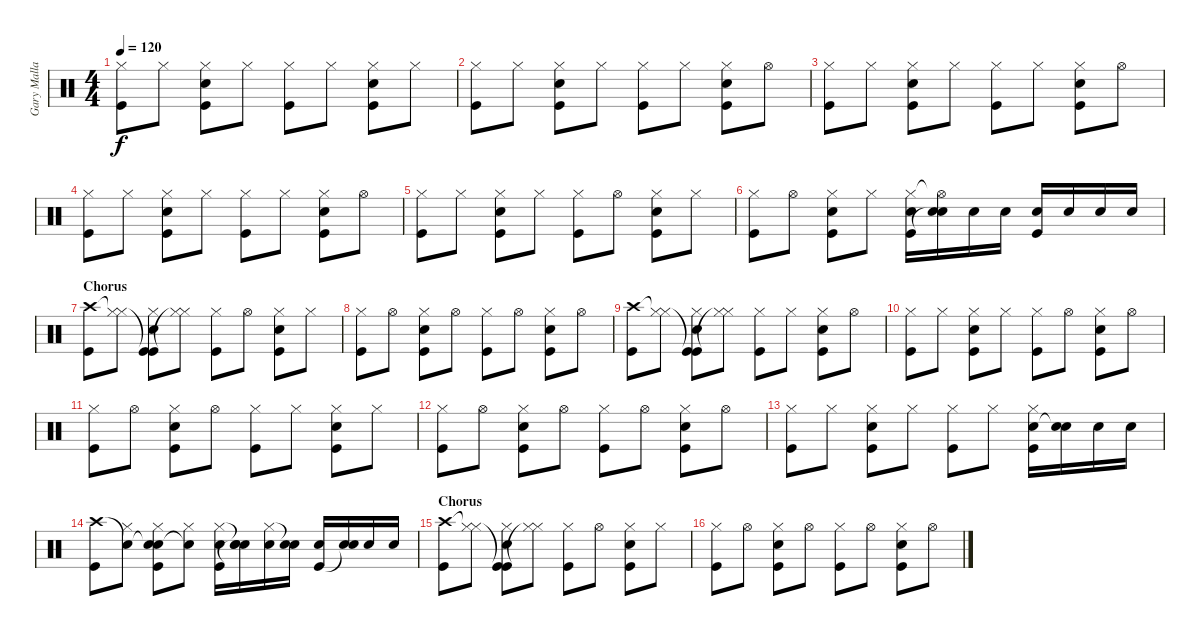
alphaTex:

\track ("Gary Mallaber" "Gary Malla") {instrument percussion}
\staff {score}
\articulation defaults
\ts (4 4)
\tempo 120
\clef neutral
\ks c
("Hi-Hat (closed)" "Kick (hit)").8{dy f} "Hi-Hat (closed)".8 ("Hi-Hat (closed)" "Snare (hit) 2" "Kick (hit)").8 "Hi-Hat (closed)".8 ("Hi-Hat (closed)" "Kick (hit)").8 "Hi-Hat (closed)".8 ("Hi-Hat (closed)" "Snare (hit) 2" "Kick (hit)").8 "Hi-Hat (closed)".8 |
("Hi-Hat (closed)" "Kick (hit)").8 "Hi-Hat (closed)".8 ("Hi-Hat (closed)" "Snare (hit) 2" "Kick (hit)").8 "Hi-Hat (closed)".8 ("Hi-Hat (closed)" "Kick (hit)").8 "Hi-Hat (closed)".8 ("Hi-Hat (closed)" "Snare (hit) 2" "Kick (hit)").8 "Hi-Hat (open)".8 |
("Hi-Hat (closed)" "Kick (hit)").8 "Hi-Hat (closed)".8 ("Hi-Hat (closed)" "Snare (hit) 2" "Kick (hit)").8 "Hi-Hat (closed)".8 ("Hi-Hat (closed)" "Kick (hit)").8 "Hi-Hat (closed)".8 ("Hi-Hat (closed)" "Snare (hit) 2" "Kick (hit)").8 "Hi-Hat (open)".8 |
("Hi-Hat (closed)" "Kick (hit)").8 "Hi-Hat (closed)".8 ("Hi-Hat (closed)" "Snare (hit) 2" "Kick (hit)").8 "Hi-Hat (closed)".8 ("Hi-Hat (closed)" "Kick (hit)").8 "Hi-Hat (closed)".8 ("Hi-Hat (closed)" "Snare (hit) 2" "Kick (hit)").8 "Hi-Hat (open)".8 |
("Hi-Hat (closed)" "Kick (hit)").8 "Hi-Hat (closed)".8 ("Hi-Hat (closed)" "Snare (hit) 2" "Kick (hit)").8 "Hi-Hat (closed)".8 ("Hi-Hat (closed)" "Kick (hit)").8 "Hi-Hat (open)".8 ("Hi-Hat (closed)" "Snare (hit) 2" "Kick (hit)").8 "Hi-Hat (closed)".8 |
("Hi-Hat (closed)" "Kick (hit)").8 "Hi-Hat (open)".8 ("Hi-Hat (closed)" "Snare (hit) 2" "Kick (hit)").8 "Hi-Hat (closed)".8 ("Hi-Hat (closed)" "Snare (hit) 2" "Kick (hit)").16 ("Hi-Hat (open)"{t} "Snare (hit) 2" "Snare (hit)"{t}).16 "Snare (hit) 2".16 "Snare (hit) 2".16 ("Snare (hit) 2" "Kick (hit)").16 "Snare (hit) 2".16 "Snare (hit) 2".16 "Snare (hit) 2".16 |
\section ("" "Chorus")
("Crash high (hit)" "Kick (hit)").8 ("Hi-Hat (closed)"{t} "Hi-Hat (closed)").8 ("Kick (hit)"{t} "Hi-Hat (closed)" "Snare (hit) 2" "Kick (hit)").8 ("Hi-Hat (closed)"{t} "Hi-Hat (closed)").8 ("Hi-Hat (closed)" "Kick (hit)").8 "Hi-Hat (open)".8 ("Hi-Hat (closed)" "Snare (hit) 2" "Kick (hit)").8 "Hi-Hat (closed)".8 |
("Hi-Hat (closed)" "Kick (hit)").8 "Hi-Hat (open)".8 ("Hi-Hat (closed)" "Snare (hit) 2" "Kick (hit)").8 "Hi-Hat (open)".8 ("Hi-Hat (closed)" "Kick (hit)").8 "Hi-Hat (open)".8 ("Hi-Hat (closed)" "Snare (hit) 2" "Kick (hit)").8 "Hi-Hat (open)".8 |
("Crash high (hit)" "Kick (hit)").8 ("Hi-Hat (closed)"{t} "Hi-Hat (closed)").8 ("Kick (hit)"{t} "Hi-Hat (closed)" "Snare (hit) 2" "Kick (hit)").8 ("Hi-Hat (closed)"{t} "Hi-Hat (closed)").8 ("Hi-Hat (closed)" "Kick (hit)").8 "Hi-Hat (closed)".8 ("Hi-Hat (closed)" "Snare (hit) 2" "Kick (hit)").8 "Hi-Hat (open)".8 |
("Hi-Hat (closed)" "Kick (hit)").8 "Hi-Hat (closed)".8 ("Hi-Hat (closed)" "Snare (hit) 2" "Kick (hit)").8 "Hi-Hat (closed)".8 ("Hi-Hat (closed)" "Kick (hit)").8 "Hi-Hat (open)".8 ("Hi-Hat (closed)" "Snare (hit) 2" "Kick (hit)").8 "Hi-Hat (open)".8 |
("Hi-Hat (closed)" "Kick (hit)").8 "Hi-Hat (open)".8 ("Hi-Hat (closed)" "Snare (hit) 2" "Kick (hit)").8 "Hi-Hat (open)".8 ("Hi-Hat (closed)" "Kick (hit)").8 "Hi-Hat (closed)".8 ("Hi-Hat (closed)" "Snare (hit) 2" "Kick (hit)").8 "Hi-Hat (closed)".8 |
("Hi-Hat (closed)" "Kick (hit)").8 "Hi-Hat (open)".8 ("Hi-Hat (closed)" "Snare (hit) 2" "Kick (hit)").8 "Hi-Hat (open)".8 ("Hi-Hat (closed)" "Kick (hit)").8 "Hi-Hat (open)".8 ("Hi-Hat (closed)" "Snare (hit) 2" "Kick (hit)").8 "Hi-Hat (open)".8 |
("Hi-Hat (closed)" "Kick (hit)").8 "Hi-Hat (closed)".8 ("Hi-Hat (closed)" "Snare (hit) 2" "Kick (hit)").8 "Hi-Hat (closed)".8 ("Hi-Hat (closed)" "Kick (hit)").8 "Hi-Hat (closed)".8 ("Hi-Hat (closed)" "Snare (hit) 2" "Kick (hit)").16 ("Snare (hit) 2" "Snare (hit)"{t}).16 "Snare (hit) 2".16 "Snare (hit) 2".16 |
("Crash high (hit)" "Kick (hit)").8 ("Snare (hit)"{t} "Hi-Hat (closed)").8 ("Snare (hit)"{t} "Hi-Hat (closed)" "Snare (hit) 2" "Kick (hit)").8 ("Snare (hit)"{t} "Hi-Hat (closed)").8 ("Hi-Hat (closed)" "Snare (hit) 2" "Kick (hit)").16 ("Snare (hit)"{t} "Snare (hit) 2" "Snare (hit)"{t}).16 ("Hi-Hat (closed)" "Snare (hit) 2").16 ("Snare (hit)"{t} "Snare (hit) 2").16 ("Snare (hit) 2" "Kick (hit)").16 ("Snare (hit) 2" "Snare (hit)"{t}).16 "Snare (hit) 2".16 "Snare (hit) 2".16 |
\section ("" "Chorus")
("Crash high (hit)" "Kick (hit)").8 ("Hi-Hat (closed)"{t} "Hi-Hat (closed)").8 ("Kick (hit)"{t} "Hi-Hat (closed)" "Snare (hit) 2" "Kick (hit)").8 ("Hi-Hat (closed)"{t} "Hi-Hat (closed)").8 ("Hi-Hat (closed)" "Kick (hit)").8 "Hi-Hat (open)".8 ("Hi-Hat (closed)" "Snare (hit) 2" "Kick (hit)").8 "Hi-Hat (closed)".8 |
("Hi-Hat (closed)" "Kick (hit)").8 "Hi-Hat (open)".8 ("Hi-Hat (closed)" "Snare (hit) 2" "Kick (hit)").8 "Hi-Hat (open)".8 ("Hi-Hat (closed)" "Kick (hit)").8 "Hi-Hat (open)".8 ("Hi-Hat (closed)" "Snare (hit) 2" "Kick (hit)").8 "Hi-Hat (open)".8
